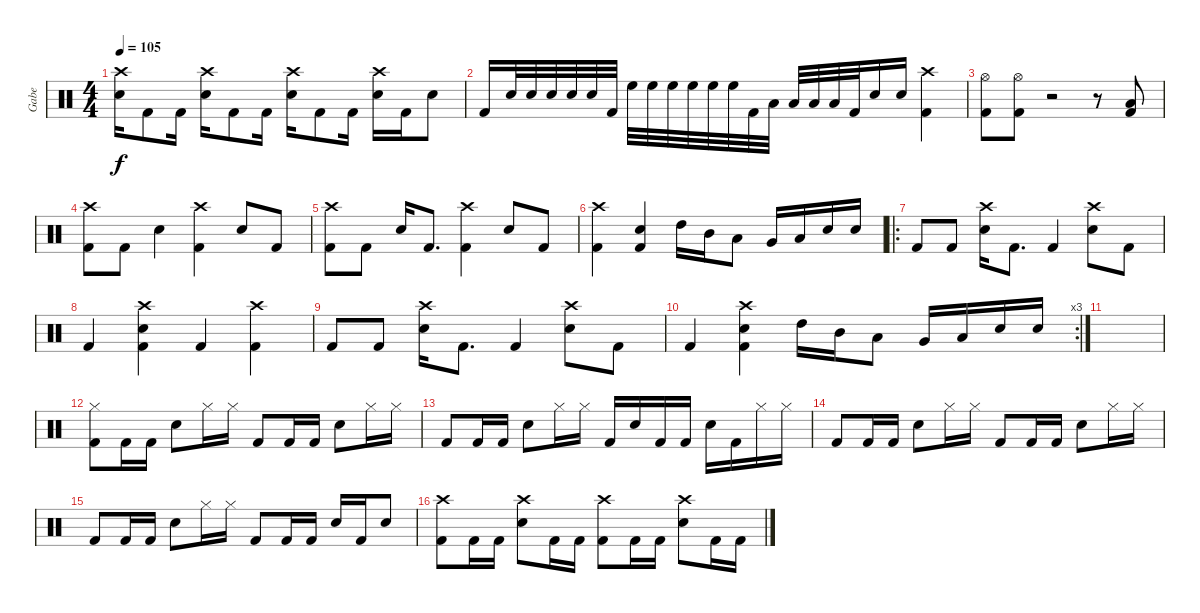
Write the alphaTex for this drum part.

\track ("Gabe" "Gabe") {instrument percussion}
\staff {score}
\articulation defaults
\ts (4 4)
\tempo 105
\clef neutral
\ks c
("Crash high (hit)" "Electric Snare (hit)").16{dy f} "Kick (hit) 2".8 "Kick (hit) 2".16 ("Crash high (hit)" "Electric Snare (hit)").16 "Kick (hit) 2".8 "Kick (hit) 2".16 ("Crash high (hit)" "Electric Snare (hit)").16 "Kick (hit) 2".8 "Kick (hit) 2".16 ("Crash high (hit)" "Electric Snare (hit)").16 "Kick (hit) 2".16 "Electric Snare (hit)".8 |
"Kick (hit) 2".16 "Electric Snare (hit)".32 "Electric Snare (hit)".32 "Electric Snare (hit)".32 "Electric Snare (hit)".32 "Electric Snare (hit)".32 "Kick (hit) 2".32 "High Floor Tom (hit)".32 "High Floor Tom (hit)".32 "High Floor Tom (hit)".32 "High Floor Tom (hit)".32 "High Floor Tom (hit)".32 "High Floor Tom (hit)".32 "Kick (hit) 2".32 "Low Tom (hit)".32 "Low Tom (hit)".32 "Low Tom (hit)".32 "Low Tom (hit)".32 "Kick (hit) 2".32 "Electric Snare (hit)".16 "Electric Snare (hit)".16 ("Crash high (hit)" "Kick (hit) 2").4 |
("Hi-Hat (open)" "Kick (hit) 2").8 ("Hi-Hat (open)" "Kick (hit) 2").8 r.2 r.8 ("Low Floor Tom (hit)" "Kick (hit) 2").8 |
("Crash high (hit)" "Kick (hit) 2").8 "Kick (hit) 2".8 "Electric Snare (hit)".4 ("Crash high (hit)" "Kick (hit) 2").4 "Electric Snare (hit)".8 "Kick (hit) 2".8 |
("Crash high (hit)" "Kick (hit) 2").8 "Kick (hit) 2".8 "Electric Snare (hit)".16 "Kick (hit) 2".8{d} ("Crash high (hit)" "Kick (hit) 2").4 "Electric Snare (hit)".8 "Kick (hit) 2".8 |
("Crash high (hit)" "Kick (hit) 2").4 ("Electric Snare (hit)" "Kick (hit) 2").4 "High Tom (hit)".16 "Mid Tom (hit)".16 "Low Tom (hit)".8 "Very Low Tom (hit)".16 "Low Floor Tom (hit)".16 "Electric Snare (hit)".16 "Electric Snare (hit)".16 |
\ro "Kick (hit) 2".8 "Kick (hit) 2".8
("Crash high (hit)" "Electric Snare (hit)").16 "Kick (hit) 2".8{d} "Kick (hit) 2".4 ("Crash high (hit)" "Electric Snare (hit)").8 "Kick (hit) 2".8 |
"Kick (hit) 2".4 ("Crash high (hit)" "Electric Snare (hit)" "Kick (hit) 2").4 "Kick (hit) 2".4 ("Crash high (hit)" "Kick (hit) 2").4 |
"Kick (hit) 2".8 "Kick (hit) 2".8 ("Crash high (hit)" "Electric Snare (hit)").16 "Kick (hit) 2".8{d} "Kick (hit) 2".4 ("Crash high (hit)" "Electric Snare (hit)").8 "Kick (hit) 2".8 |
\rc 3 "Kick (hit) 2".4
("Crash high (hit)" "Electric Snare (hit)" "Kick (hit) 2").4 "High Tom (hit)".16 "Mid Tom (hit)".16 "Low Tom (hit)".8 "Very Low Tom (hit)".16 "Low Floor Tom (hit)".16 "Electric Snare (hit)".16 "Electric Snare (hit)".16 |
|
("Hi-Hat (closed)" "Kick (hit) 2").8 "Kick (hit) 2".16 "Kick (hit) 2".16 "Electric Snare (hit)".8 "Hi-Hat (closed)".16 "Hi-Hat (closed)".16 "Kick (hit) 2".8 "Kick (hit) 2".16 "Kick (hit) 2".16 "Electric Snare (hit)".8 "Hi-Hat (closed)".16 "Hi-Hat (closed)".16 |
"Kick (hit) 2".8 "Kick (hit) 2".16 "Kick (hit) 2".16 "Electric Snare (hit)".8 "Hi-Hat (closed)".16 "Hi-Hat (closed)".16 "Kick (hit) 2".16 "Electric Snare (hit)".16 "Kick (hit) 2".16 "Kick (hit) 2".16 "Electric Snare (hit)".16 "Kick (hit) 2".16 "Hi-Hat (closed)".16 "Hi-Hat (closed)".16 |
"Kick (hit) 2".8 "Kick (hit) 2".16 "Kick (hit) 2".16 "Electric Snare (hit)".8 "Hi-Hat (closed)".16 "Hi-Hat (closed)".16 "Kick (hit) 2".8 "Kick (hit) 2".16 "Kick (hit) 2".16 "Electric Snare (hit)".8 "Hi-Hat (closed)".16 "Hi-Hat (closed)".16 |
"Kick (hit) 2".8 "Kick (hit) 2".16 "Kick (hit) 2".16 "Electric Snare (hit)".8 "Hi-Hat (closed)".16 "Hi-Hat (closed)".16 "Kick (hit) 2".8 "Kick (hit) 2".16 "Kick (hit) 2".16 "Electric Snare (hit)".16 "Kick (hit) 2".16 "Electric Snare (hit)".8 |
("Crash high (hit)" "Kick (hit) 2").8 "Kick (hit) 2".16 "Kick (hit) 2".16 ("Crash high (hit)" "Electric Snare (hit)").8 "Kick (hit) 2".16 "Kick (hit) 2".16 ("Crash high (hit)" "Kick (hit) 2").8 "Kick (hit) 2".16 "Kick (hit) 2".16 ("Crash high (hit)" "Electric Snare (hit)").8 "Kick (hit) 2".16 "Kick (hit) 2".16
